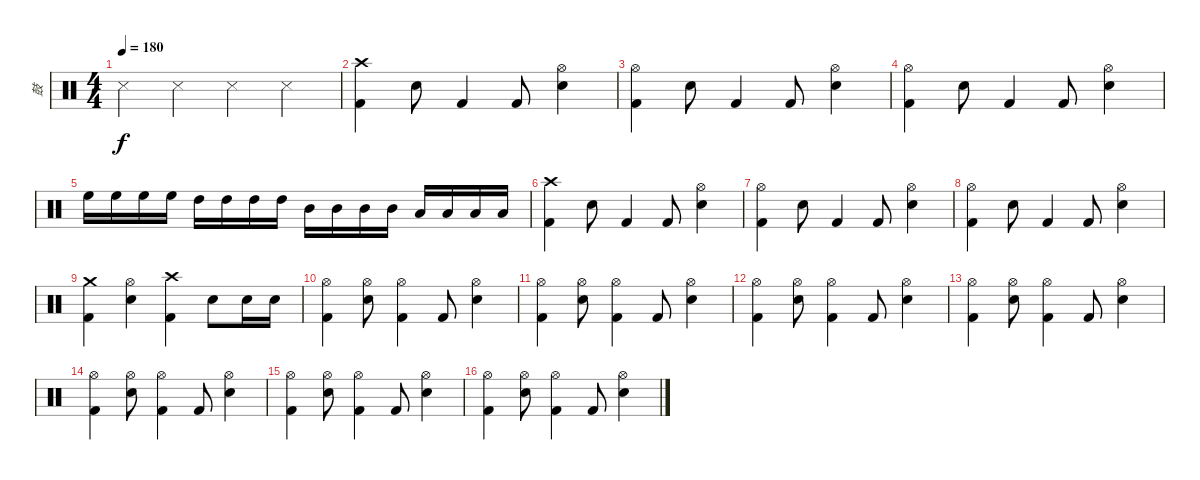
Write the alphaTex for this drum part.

\track ("鼓" "鼓") {instrument percussion}
\staff {score}
\articulation defaults
\ts (4 4)
\tempo 180
\clef neutral
\ks c "Snare (side stick) 3".4{dy f} "Snare (side stick) 3".4 "Snare (side stick) 3".4 "Snare (side stick) 3".4
|
("Crash high (hit)" "Kick (hit) 2").4 "Snare (hit) 2".8 "Kick (hit) 2".4 "Kick (hit) 2".8 ("Hi-Hat (open)" "Snare (hit) 2").4 |
("Hi-Hat (open)" "Kick (hit) 2").4 "Snare (hit) 2".8 "Kick (hit) 2".4 "Kick (hit) 2".8 ("Hi-Hat (open)" "Snare (hit) 2").4 |
("Hi-Hat (open)" "Kick (hit) 2").4 "Snare (hit) 2".8 "Kick (hit) 2".4 "Kick (hit) 2".8 ("Hi-Hat (open)" "Snare (hit) 2").4 |
"High Floor Tom (hit)".16 "High Floor Tom (hit)".16 "High Floor Tom (hit)".16 "High Floor Tom (hit)".16 "High Tom (hit)".16 "High Tom (hit)".16 "High Tom (hit)".16 "High Tom (hit)".16 "Mid Tom (hit)".16 "Mid Tom (hit)".16 "Mid Tom (hit)".16 "Mid Tom (hit)".16 "Low Tom (hit)".16 "Low Tom (hit)".16 "Low Tom (hit)".16 "Low Tom (hit)".16 |
("Crash high (hit)" "Kick (hit) 2").4 "Snare (hit) 2".8 "Kick (hit) 2".4 "Kick (hit) 2".8 ("Hi-Hat (open)" "Snare (hit) 2").4 |
("Hi-Hat (open)" "Kick (hit) 2").4 "Snare (hit) 2".8 "Kick (hit) 2".4 "Kick (hit) 2".8 ("Hi-Hat (open)" "Snare (hit) 2").4 |
("Hi-Hat (open)" "Kick (hit) 2").4 "Snare (hit) 2".8 "Kick (hit) 2".4 "Kick (hit) 2".8 ("Hi-Hat (open)" "Snare (hit) 2").4 |
("Crash medium (hit)" "Kick (hit) 2").4 ("Hi-Hat (open)" "Electric Snare (hit)").4 ("Crash high (hit)" "Kick (hit) 2").4 "Electric Snare (hit)".8 "Electric Snare (hit)".16 "Electric Snare (hit)".16 |
("Hi-Hat (open)" "Kick (hit) 2").4 ("Hi-Hat (open)" "Snare (hit) 2").8 ("Hi-Hat (open)" "Kick (hit) 2").4 "Kick (hit) 2".8 ("Hi-Hat (open)" "Snare (hit) 2").4 |
("Hi-Hat (open)" "Kick (hit) 2").4 ("Hi-Hat (open)" "Snare (hit) 2").8 ("Hi-Hat (open)" "Kick (hit) 2").4 "Kick (hit) 2".8 ("Hi-Hat (open)" "Snare (hit) 2").4 |
("Hi-Hat (open)" "Kick (hit) 2").4 ("Hi-Hat (open)" "Snare (hit) 2").8 ("Hi-Hat (open)" "Kick (hit) 2").4 "Kick (hit) 2".8 ("Hi-Hat (open)" "Snare (hit) 2").4 |
("Hi-Hat (open)" "Kick (hit) 2").4 ("Hi-Hat (open)" "Snare (hit) 2").8 ("Hi-Hat (open)" "Kick (hit) 2").4 "Kick (hit) 2".8 ("Hi-Hat (open)" "Snare (hit) 2").4 |
("Hi-Hat (open)" "Kick (hit) 2").4 ("Hi-Hat (open)" "Snare (hit) 2").8 ("Hi-Hat (open)" "Kick (hit) 2").4 "Kick (hit) 2".8 ("Hi-Hat (open)" "Snare (hit) 2").4 |
("Hi-Hat (open)" "Kick (hit) 2").4 ("Hi-Hat (open)" "Snare (hit) 2").8 ("Hi-Hat (open)" "Kick (hit) 2").4 "Kick (hit) 2".8 ("Hi-Hat (open)" "Snare (hit) 2").4 |
("Hi-Hat (open)" "Kick (hit) 2").4 ("Hi-Hat (open)" "Snare (hit) 2").8 ("Hi-Hat (open)" "Kick (hit) 2").4 "Kick (hit) 2".8 ("Hi-Hat (open)" "Snare (hit) 2").4
